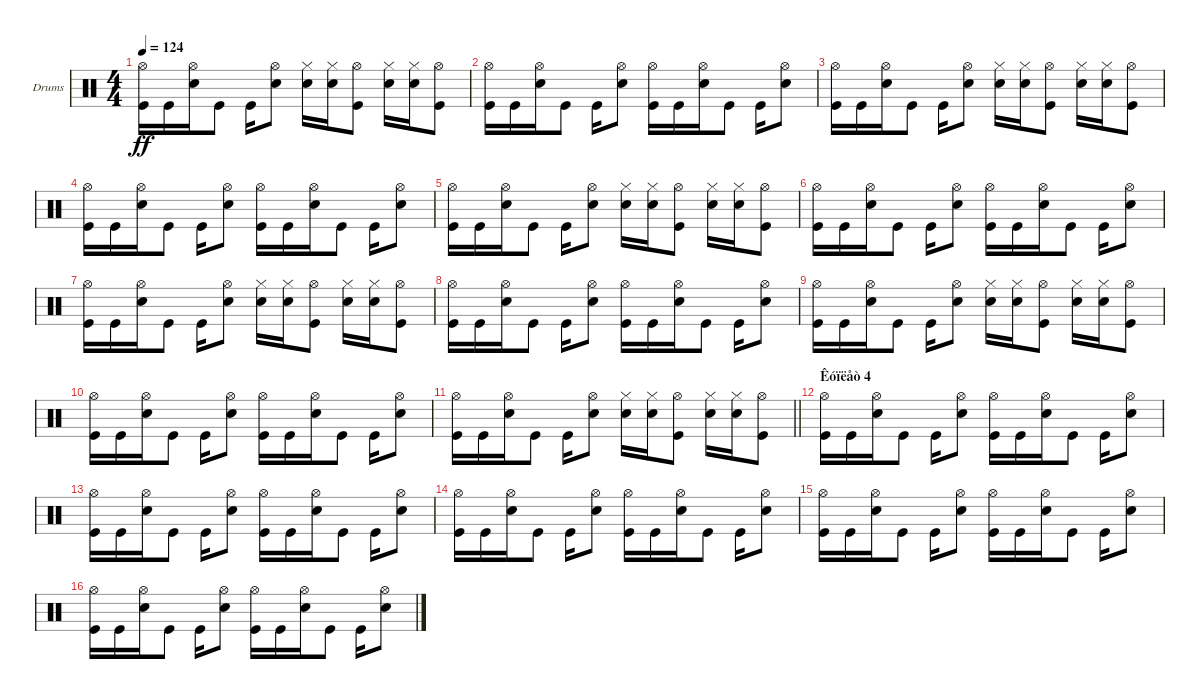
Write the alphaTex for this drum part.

\bracketExtendMode groupsimilarinstruments
\firstSystemTrackNameOrientation horizontal
\otherSystemsTrackNameOrientation horizontal
\track ("Барабаны" "Drums") {instrument percussion}
\staff {score}
\articulation defaults
\ts (4 4)
\tempo 124
\clef neutral
\ks c
("Hi-Hat (open)" "Kick (hit)").16{dy ff} "Kick (hit)".16 ("Hi-Hat (open)" "Snare (hit) 2").16 "Kick (hit)".8 "Kick (hit)".16 ("Hi-Hat (open)" "Snare (hit) 2").8 ("Hi-Hat (closed)" "Snare (hit) 2").16 ("Hi-Hat (closed)" "Snare (hit) 2").16 ("Hi-Hat (open)" "Kick (hit)").8 ("Hi-Hat (closed)" "Snare (hit) 2").16 ("Hi-Hat (closed)" "Snare (hit) 2").16 ("Hi-Hat (open)" "Kick (hit)").8 |
("Hi-Hat (open)" "Kick (hit)").16 "Kick (hit)".16 ("Hi-Hat (open)" "Snare (hit) 2").16 "Kick (hit)".8 "Kick (hit)".16 ("Hi-Hat (open)" "Snare (hit) 2").8 ("Kick (hit)" "Hi-Hat (open)").16 "Kick (hit)".16 ("Hi-Hat (open)" "Snare (hit) 2").16 "Kick (hit)".8 "Kick (hit)".16 ("Hi-Hat (open)" "Snare (hit) 2").8 |
("Hi-Hat (open)" "Kick (hit)").16 "Kick (hit)".16 ("Hi-Hat (open)" "Snare (hit) 2").16 "Kick (hit)".8 "Kick (hit)".16 ("Hi-Hat (open)" "Snare (hit) 2").8 ("Hi-Hat (closed)" "Snare (hit) 2").16 ("Hi-Hat (closed)" "Snare (hit) 2").16 ("Hi-Hat (open)" "Kick (hit)").8 ("Hi-Hat (closed)" "Snare (hit) 2").16 ("Hi-Hat (closed)" "Snare (hit) 2").16 ("Hi-Hat (open)" "Kick (hit)").8 |
("Hi-Hat (open)" "Kick (hit)").16 "Kick (hit)".16 ("Hi-Hat (open)" "Snare (hit) 2").16 "Kick (hit)".8 "Kick (hit)".16 ("Hi-Hat (open)" "Snare (hit) 2").8 ("Kick (hit)" "Hi-Hat (open)").16 "Kick (hit)".16 ("Hi-Hat (open)" "Snare (hit) 2").16 "Kick (hit)".8 "Kick (hit)".16 ("Hi-Hat (open)" "Snare (hit) 2").8 |
("Hi-Hat (open)" "Kick (hit)").16 "Kick (hit)".16 ("Hi-Hat (open)" "Snare (hit) 2").16 "Kick (hit)".8 "Kick (hit)".16 ("Hi-Hat (open)" "Snare (hit) 2").8 ("Hi-Hat (closed)" "Snare (hit) 2").16 ("Hi-Hat (closed)" "Snare (hit) 2").16 ("Hi-Hat (open)" "Kick (hit)").8 ("Hi-Hat (closed)" "Snare (hit) 2").16 ("Hi-Hat (closed)" "Snare (hit) 2").16 ("Hi-Hat (open)" "Kick (hit)").8 |
("Hi-Hat (open)" "Kick (hit)").16 "Kick (hit)".16 ("Hi-Hat (open)" "Snare (hit) 2").16 "Kick (hit)".8 "Kick (hit)".16 ("Hi-Hat (open)" "Snare (hit) 2").8 ("Kick (hit)" "Hi-Hat (open)").16 "Kick (hit)".16 ("Hi-Hat (open)" "Snare (hit) 2").16 "Kick (hit)".8 "Kick (hit)".16 ("Hi-Hat (open)" "Snare (hit) 2").8 |
("Hi-Hat (open)" "Kick (hit)").16 "Kick (hit)".16 ("Hi-Hat (open)" "Snare (hit) 2").16 "Kick (hit)".8 "Kick (hit)".16 ("Hi-Hat (open)" "Snare (hit) 2").8 ("Hi-Hat (closed)" "Snare (hit) 2").16 ("Hi-Hat (closed)" "Snare (hit) 2").16 ("Hi-Hat (open)" "Kick (hit)").8 ("Hi-Hat (closed)" "Snare (hit) 2").16 ("Hi-Hat (closed)" "Snare (hit) 2").16 ("Hi-Hat (open)" "Kick (hit)").8 |
("Hi-Hat (open)" "Kick (hit)").16 "Kick (hit)".16 ("Hi-Hat (open)" "Snare (hit) 2").16 "Kick (hit)".8 "Kick (hit)".16 ("Hi-Hat (open)" "Snare (hit) 2").8 ("Kick (hit)" "Hi-Hat (open)").16 "Kick (hit)".16 ("Hi-Hat (open)" "Snare (hit) 2").16 "Kick (hit)".8 "Kick (hit)".16 ("Hi-Hat (open)" "Snare (hit) 2").8 |
("Hi-Hat (open)" "Kick (hit)").16 "Kick (hit)".16 ("Hi-Hat (open)" "Snare (hit) 2").16 "Kick (hit)".8 "Kick (hit)".16 ("Hi-Hat (open)" "Snare (hit) 2").8 ("Hi-Hat (closed)" "Snare (hit) 2").16 ("Hi-Hat (closed)" "Snare (hit) 2").16 ("Hi-Hat (open)" "Kick (hit)").8 ("Hi-Hat (closed)" "Snare (hit) 2").16 ("Hi-Hat (closed)" "Snare (hit) 2").16 ("Hi-Hat (open)" "Kick (hit)").8 |
("Hi-Hat (open)" "Kick (hit)").16 "Kick (hit)".16 ("Hi-Hat (open)" "Snare (hit) 2").16 "Kick (hit)".8 "Kick (hit)".16 ("Hi-Hat (open)" "Snare (hit) 2").8 ("Kick (hit)" "Hi-Hat (open)").16 "Kick (hit)".16 ("Hi-Hat (open)" "Snare (hit) 2").16 "Kick (hit)".8 "Kick (hit)".16 ("Hi-Hat (open)" "Snare (hit) 2").8 |
\barLineRight lightlight
("Hi-Hat (open)" "Kick (hit)").16 "Kick (hit)".16 ("Hi-Hat (open)" "Snare (hit) 2").16 "Kick (hit)".8 "Kick (hit)".16 ("Hi-Hat (open)" "Snare (hit) 2").8 ("Hi-Hat (closed)" "Snare (hit) 2").16 ("Hi-Hat (closed)" "Snare (hit) 2").16 ("Hi-Hat (open)" "Kick (hit)").8 ("Hi-Hat (closed)" "Snare (hit) 2").16 ("Hi-Hat (closed)" "Snare (hit) 2").16 ("Hi-Hat (open)" "Kick (hit)").8 |
\section ("" "Êóïëåò 4")
("Hi-Hat (open)" "Kick (hit)").16 "Kick (hit)".16 ("Hi-Hat (open)" "Snare (hit) 2").16 "Kick (hit)".8 "Kick (hit)".16 ("Hi-Hat (open)" "Snare (hit) 2").8 ("Kick (hit)" "Hi-Hat (open)").16 "Kick (hit)".16 ("Hi-Hat (open)" "Snare (hit) 2").16 "Kick (hit)".8 "Kick (hit)".16 ("Hi-Hat (open)" "Snare (hit) 2").8 |
("Hi-Hat (open)" "Kick (hit)").16 "Kick (hit)".16 ("Hi-Hat (open)" "Snare (hit) 2").16 "Kick (hit)".8 "Kick (hit)".16 ("Hi-Hat (open)" "Snare (hit) 2").8 ("Kick (hit)" "Hi-Hat (open)").16 "Kick (hit)".16 ("Hi-Hat (open)" "Snare (hit) 2").16 "Kick (hit)".8 "Kick (hit)".16 ("Hi-Hat (open)" "Snare (hit) 2").8 |
("Hi-Hat (open)" "Kick (hit)").16 "Kick (hit)".16 ("Hi-Hat (open)" "Snare (hit) 2").16 "Kick (hit)".8 "Kick (hit)".16 ("Hi-Hat (open)" "Snare (hit) 2").8 ("Kick (hit)" "Hi-Hat (open)").16 "Kick (hit)".16 ("Hi-Hat (open)" "Snare (hit) 2").16 "Kick (hit)".8 "Kick (hit)".16 ("Hi-Hat (open)" "Snare (hit) 2").8 |
("Hi-Hat (open)" "Kick (hit)").16 "Kick (hit)".16 ("Hi-Hat (open)" "Snare (hit) 2").16 "Kick (hit)".8 "Kick (hit)".16 ("Hi-Hat (open)" "Snare (hit) 2").8 ("Kick (hit)" "Hi-Hat (open)").16 "Kick (hit)".16 ("Hi-Hat (open)" "Snare (hit) 2").16 "Kick (hit)".8 "Kick (hit)".16 ("Hi-Hat (open)" "Snare (hit) 2").8 |
("Hi-Hat (open)" "Kick (hit)").16 "Kick (hit)".16 ("Hi-Hat (open)" "Snare (hit) 2").16 "Kick (hit)".8 "Kick (hit)".16 ("Hi-Hat (open)" "Snare (hit) 2").8 ("Kick (hit)" "Hi-Hat (open)").16 "Kick (hit)".16 ("Hi-Hat (open)" "Snare (hit) 2").16 "Kick (hit)".8 "Kick (hit)".16 ("Hi-Hat (open)" "Snare (hit) 2").8
